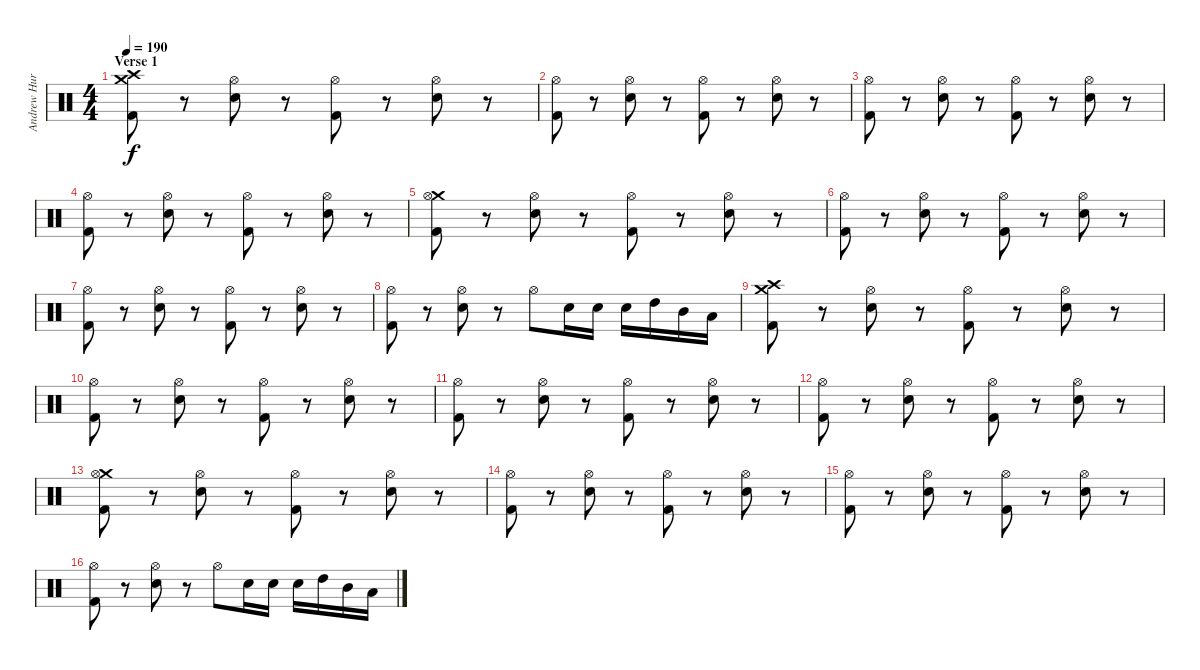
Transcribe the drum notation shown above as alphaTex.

\track ("Andrew Hurley (Drums)" "Andrew Hur") {instrument percussion}
\staff {score}
\articulation defaults
\ts (4 4)
\section ("" "Verse 1")
\tempo 190
\clef neutral
\ks c
("Crash medium (hit)" "Crash high (hit)" "Kick (hit) 2").8{dy f} r.8 ("Hi-Hat (open)" "Electric Snare (hit)").8 r.8 ("Hi-Hat (open)" "Kick (hit) 2").8 r.8 ("Hi-Hat (open)" "Electric Snare (hit)").8 r.8 |
("Hi-Hat (open)" "Kick (hit) 2").8 r.8 ("Hi-Hat (open)" "Electric Snare (hit)").8 r.8 ("Hi-Hat (open)" "Kick (hit) 2").8 r.8 ("Hi-Hat (open)" "Electric Snare (hit)").8 r.8 |
("Hi-Hat (open)" "Kick (hit) 2").8 r.8 ("Hi-Hat (open)" "Electric Snare (hit)").8 r.8 ("Hi-Hat (open)" "Kick (hit) 2").8 r.8 ("Hi-Hat (open)" "Electric Snare (hit)").8 r.8 |
("Hi-Hat (open)" "Kick (hit) 2").8 r.8 ("Hi-Hat (open)" "Electric Snare (hit)").8 r.8 ("Hi-Hat (open)" "Kick (hit) 2").8 r.8 ("Hi-Hat (open)" "Electric Snare (hit)").8 r.8 |
("Crash medium (hit)" "Hi-Hat (open)" "Kick (hit) 2").8 r.8 ("Hi-Hat (open)" "Electric Snare (hit)").8 r.8 ("Hi-Hat (open)" "Kick (hit) 2").8 r.8 ("Hi-Hat (open)" "Electric Snare (hit)").8 r.8 |
("Hi-Hat (open)" "Kick (hit) 2").8 r.8 ("Hi-Hat (open)" "Electric Snare (hit)").8 r.8 ("Hi-Hat (open)" "Kick (hit) 2").8 r.8 ("Hi-Hat (open)" "Electric Snare (hit)").8 r.8 |
("Hi-Hat (open)" "Kick (hit) 2").8 r.8 ("Hi-Hat (open)" "Electric Snare (hit)").8 r.8 ("Hi-Hat (open)" "Kick (hit) 2").8 r.8 ("Hi-Hat (open)" "Electric Snare (hit)").8 r.8 |
("Hi-Hat (open)" "Kick (hit) 2").8 r.8 ("Hi-Hat (open)" "Electric Snare (hit)").8 r.8 "Hi-Hat (open)".8 "Electric Snare (hit)".16 "Electric Snare (hit)".16 "Electric Snare (hit)".16 "High Tom (hit)".16 "Mid Tom (hit)".16 "Low Tom (hit)".16 |
("Crash medium (hit)" "Crash high (hit)" "Kick (hit) 2").8 r.8 ("Hi-Hat (open)" "Electric Snare (hit)").8 r.8 ("Hi-Hat (open)" "Kick (hit) 2").8 r.8 ("Hi-Hat (open)" "Electric Snare (hit)").8 r.8 |
("Hi-Hat (open)" "Kick (hit) 2").8 r.8 ("Hi-Hat (open)" "Electric Snare (hit)").8 r.8 ("Hi-Hat (open)" "Kick (hit) 2").8 r.8 ("Hi-Hat (open)" "Electric Snare (hit)").8 r.8 |
("Hi-Hat (open)" "Kick (hit) 2").8 r.8 ("Hi-Hat (open)" "Electric Snare (hit)").8 r.8 ("Hi-Hat (open)" "Kick (hit) 2").8 r.8 ("Hi-Hat (open)" "Electric Snare (hit)").8 r.8 |
("Hi-Hat (open)" "Kick (hit) 2").8 r.8 ("Hi-Hat (open)" "Electric Snare (hit)").8 r.8 ("Hi-Hat (open)" "Kick (hit) 2").8 r.8 ("Hi-Hat (open)" "Electric Snare (hit)").8 r.8 |
("Crash medium (hit)" "Hi-Hat (open)" "Kick (hit) 2").8 r.8 ("Hi-Hat (open)" "Electric Snare (hit)").8 r.8 ("Hi-Hat (open)" "Kick (hit) 2").8 r.8 ("Hi-Hat (open)" "Electric Snare (hit)").8 r.8 |
("Hi-Hat (open)" "Kick (hit) 2").8 r.8 ("Hi-Hat (open)" "Electric Snare (hit)").8 r.8 ("Hi-Hat (open)" "Kick (hit) 2").8 r.8 ("Hi-Hat (open)" "Electric Snare (hit)").8 r.8 |
("Hi-Hat (open)" "Kick (hit) 2").8 r.8 ("Hi-Hat (open)" "Electric Snare (hit)").8 r.8 ("Hi-Hat (open)" "Kick (hit) 2").8 r.8 ("Hi-Hat (open)" "Electric Snare (hit)").8 r.8 |
("Hi-Hat (open)" "Kick (hit) 2").8 r.8 ("Hi-Hat (open)" "Electric Snare (hit)").8 r.8 "Hi-Hat (open)".8 "Electric Snare (hit)".16 "Electric Snare (hit)".16 "Electric Snare (hit)".16 "High Tom (hit)".16 "Mid Tom (hit)".16 "Low Tom (hit)".16
